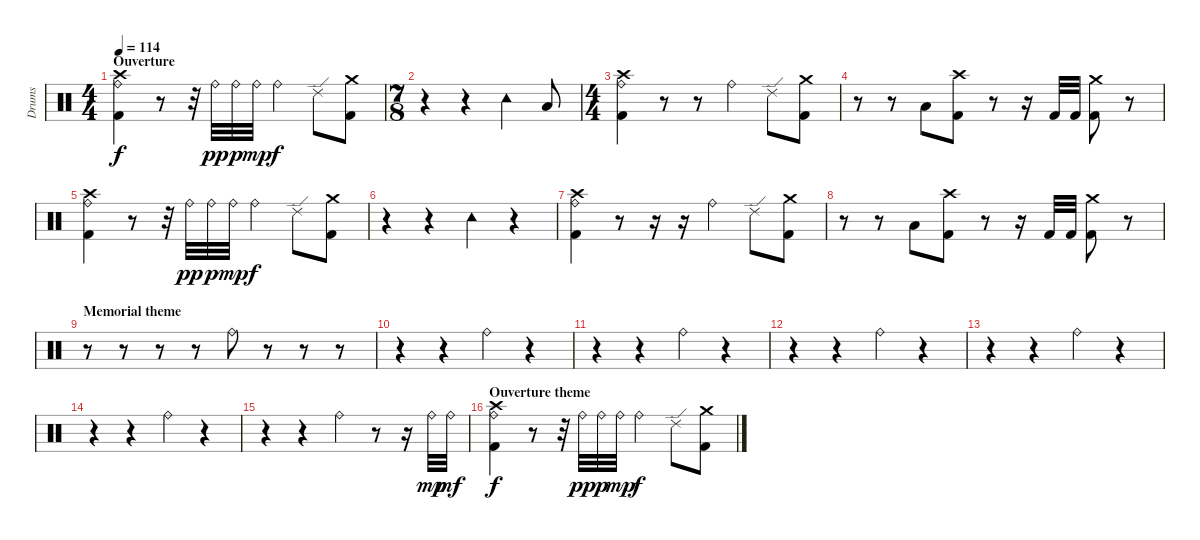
\track ("Drums" "Drums") {instrument percussion}
\staff {score}
\articulation defaults
\ts (4 4)
\section ("" "Ouverture")
\tempo 114
\clef neutral
\ks c
("Kick (hit) 2" "Ride (bell)" "Crash high (hit)").4{dy f} r.8 r.32 "Ride (bell)".32{dy pp} "Ride (bell)".32{dy p} "Ride (bell)".32{dy mp} "Ride (bell)".4{dy f} "Ride (edge) 2".8 ("Kick (hit) 2" "Crash medium (hit)").8 |
\ts (7 8)
r.4 r.4 "Tambourine (hit)".4 "Low Floor Tom (hit)".8 |
\ts (4 4)
("Kick (hit) 2" "Ride (bell)" "Crash high (hit)").4 r.8 r.8 "Ride (bell)".4 "Ride (edge) 2".8 ("Kick (hit) 2" "Crash medium (hit)").8 |
r.8 r.8 "Low Floor Tom (hit)".8 ("Kick (hit) 2" "Crash high (hit)").8 r.8 r.16 "Kick (hit) 2".32 "Kick (hit) 2".32 ("Kick (hit) 2" "Crash medium (hit)").8 r.8 |
("Kick (hit) 2" "Ride (bell)" "Crash high (hit)").4 r.8 r.32 "Ride (bell)".32{dy pp} "Ride (bell)".32{dy p} "Ride (bell)".32{dy mp} "Ride (bell)".4{dy f} "Ride (edge) 2".8 ("Kick (hit) 2" "Crash medium (hit)").8 |
r.4 r.4 "Tambourine (hit)".4 r.4 |
("Kick (hit) 2" "Ride (bell)" "Crash high (hit)").4 r.8 r.16 r.16 "Ride (bell)".4 "Ride (edge) 2".8 ("Kick (hit) 2" "Crash medium (hit)").8 |
r.8 r.8 "Low Floor Tom (hit)".8 ("Kick (hit) 2" "Crash high (hit)").8 r.8 r.16 "Kick (hit) 2".32 "Kick (hit) 2".32 ("Kick (hit) 2" "Crash medium (hit)").8 r.8 |
\section ("" "Memorial theme")
r.8 r.8 r.8 r.8 "Ride (bell)".8 r.8 r.8 r.8 |
r.4 r.4 "Ride (bell)".4 r.4 |
r.4 r.4 "Ride (bell)".4 r.4 |
r.4 r.4 "Ride (bell)".4 r.4 |
r.4 r.4 "Ride (bell)".4 r.4 |
r.4 r.4 "Ride (bell)".4 r.4 |
r.4 r.4 "Ride (bell)".4 r.8 r.16 "Ride (bell)".32{dy mp} "Ride (bell)".32{dy mf} |
\section ("" "Ouverture theme")
("Kick (hit) 2" "Ride (bell)" "Crash high (hit)").4{dy f} r.8 r.32 "Ride (bell)".32{dy pp} "Ride (bell)".32{dy p} "Ride (bell)".32{dy mp} "Ride (bell)".4{dy f} "Ride (edge) 2".8 ("Kick (hit) 2" "Crash medium (hit)").8
